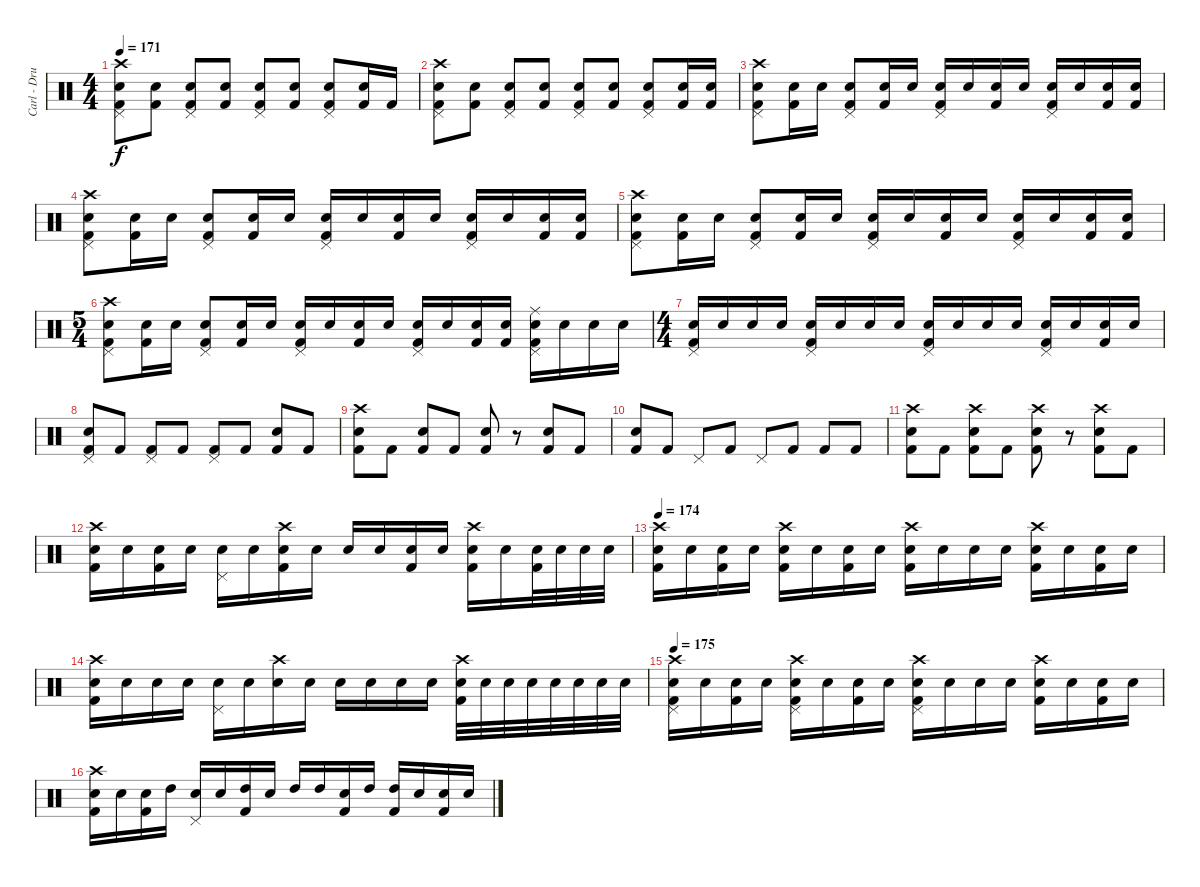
\track ("Carl - Drums" "Carl - Dru") {instrument percussion}
\staff {score}
\articulation defaults
\ts (4 4)
\tempo 171
\clef neutral
\ks c
("Electric Snare (hit)" "Pedal Hi-Hat (hit)" "Kick (hit) 2" "Crash high (hit)").8{dy f} ("Electric Snare (hit)" "Kick (hit) 2").8 ("Electric Snare (hit)" "Pedal Hi-Hat (hit)" "Kick (hit) 2").8 ("Electric Snare (hit)" "Kick (hit) 2").8 ("Electric Snare (hit)" "Pedal Hi-Hat (hit)" "Kick (hit) 2").8 ("Electric Snare (hit)" "Kick (hit) 2").8 ("Electric Snare (hit)" "Pedal Hi-Hat (hit)" "Kick (hit) 2").8 ("Electric Snare (hit)" "Kick (hit) 2").16 "Kick (hit) 2".16 |
("Electric Snare (hit)" "Pedal Hi-Hat (hit)" "Kick (hit) 2" "Crash high (hit)").8 ("Electric Snare (hit)" "Kick (hit) 2").8 ("Electric Snare (hit)" "Pedal Hi-Hat (hit)" "Kick (hit) 2").8 ("Electric Snare (hit)" "Kick (hit) 2").8 ("Electric Snare (hit)" "Pedal Hi-Hat (hit)" "Kick (hit) 2").8 ("Electric Snare (hit)" "Kick (hit) 2").8 ("Electric Snare (hit)" "Pedal Hi-Hat (hit)" "Kick (hit) 2").8 ("Electric Snare (hit)" "Kick (hit) 2").16 ("Electric Snare (hit)" "Kick (hit) 2").16 |
("Electric Snare (hit)" "Pedal Hi-Hat (hit)" "Kick (hit) 2" "Crash high (hit)").8 ("Electric Snare (hit)" "Kick (hit) 2").16 "Electric Snare (hit)".16 ("Electric Snare (hit)" "Pedal Hi-Hat (hit)" "Kick (hit) 2").8 ("Electric Snare (hit)" "Kick (hit) 2").16 "Electric Snare (hit)".16 ("Electric Snare (hit)" "Pedal Hi-Hat (hit)" "Kick (hit) 2").16 "Electric Snare (hit)".16 ("Electric Snare (hit)" "Kick (hit) 2").16 "Electric Snare (hit)".16 ("Electric Snare (hit)" "Pedal Hi-Hat (hit)" "Kick (hit) 2").16 "Electric Snare (hit)".16 ("Electric Snare (hit)" "Kick (hit) 2").16 ("Electric Snare (hit)" "Kick (hit) 2").16 |
("Electric Snare (hit)" "Pedal Hi-Hat (hit)" "Kick (hit) 2" "Crash high (hit)").8 ("Electric Snare (hit)" "Kick (hit) 2").16 "Electric Snare (hit)".16 ("Electric Snare (hit)" "Pedal Hi-Hat (hit)" "Kick (hit) 2").8 ("Electric Snare (hit)" "Kick (hit) 2").16 "Electric Snare (hit)".16 ("Electric Snare (hit)" "Pedal Hi-Hat (hit)" "Kick (hit) 2").16 "Electric Snare (hit)".16 ("Electric Snare (hit)" "Kick (hit) 2").16 "Electric Snare (hit)".16 ("Electric Snare (hit)" "Pedal Hi-Hat (hit)" "Kick (hit) 2").16 "Electric Snare (hit)".16 ("Electric Snare (hit)" "Kick (hit) 2").16 ("Electric Snare (hit)" "Kick (hit) 2").16 |
("Electric Snare (hit)" "Pedal Hi-Hat (hit)" "Kick (hit) 2" "Crash high (hit)").8 ("Electric Snare (hit)" "Kick (hit) 2").16 "Electric Snare (hit)".16 ("Electric Snare (hit)" "Pedal Hi-Hat (hit)" "Kick (hit) 2").8 ("Electric Snare (hit)" "Kick (hit) 2").16 "Electric Snare (hit)".16 ("Electric Snare (hit)" "Pedal Hi-Hat (hit)" "Kick (hit) 2").16 "Electric Snare (hit)".16 ("Electric Snare (hit)" "Kick (hit) 2").16 "Electric Snare (hit)".16 ("Electric Snare (hit)" "Pedal Hi-Hat (hit)" "Kick (hit) 2").16 "Electric Snare (hit)".16 ("Electric Snare (hit)" "Kick (hit) 2").16 ("Electric Snare (hit)" "Kick (hit) 2").16 |
\ts (5 4)
("Electric Snare (hit)" "Pedal Hi-Hat (hit)" "Kick (hit) 2" "Crash high (hit)").8 ("Electric Snare (hit)" "Kick (hit) 2").16 "Electric Snare (hit)".16 ("Electric Snare (hit)" "Pedal Hi-Hat (hit)" "Kick (hit) 2").8 ("Electric Snare (hit)" "Kick (hit) 2").16 "Electric Snare (hit)".16 ("Electric Snare (hit)" "Pedal Hi-Hat (hit)" "Kick (hit) 2").16 "Electric Snare (hit)".16 ("Electric Snare (hit)" "Kick (hit) 2").16 "Electric Snare (hit)".16 ("Electric Snare (hit)" "Pedal Hi-Hat (hit)" "Kick (hit) 2").16 "Electric Snare (hit)".16 ("Electric Snare (hit)" "Kick (hit) 2").16 ("Electric Snare (hit)" "Kick (hit) 2").16 ("Electric Snare (hit)" "Pedal Hi-Hat (hit)" "Kick (hit) 2" "Ride (middle)").16 "Electric Snare (hit)".16 "Electric Snare (hit)".16 "Electric Snare (hit)".16 |
\ts (4 4)
("Electric Snare (hit)" "Pedal Hi-Hat (hit)" "Kick (hit) 2").16 "Electric Snare (hit)".16 "Electric Snare (hit)".16 "Electric Snare (hit)".16 ("Electric Snare (hit)" "Pedal Hi-Hat (hit)" "Kick (hit) 2").16 "Electric Snare (hit)".16 "Electric Snare (hit)".16 "Electric Snare (hit)".16 ("Electric Snare (hit)" "Pedal Hi-Hat (hit)" "Kick (hit) 2").16 "Electric Snare (hit)".16 "Electric Snare (hit)".16 "Electric Snare (hit)".16 ("Electric Snare (hit)" "Pedal Hi-Hat (hit)" "Kick (hit) 2").16 "Electric Snare (hit)".16 ("Electric Snare (hit)" "Kick (hit) 2").16 "Electric Snare (hit)".16 |
("Electric Snare (hit)" "Pedal Hi-Hat (hit)" "Kick (hit) 2").8 "Kick (hit) 2".8 ("Pedal Hi-Hat (hit)" "Kick (hit) 2").8 "Kick (hit) 2".8 ("Pedal Hi-Hat (hit)" "Kick (hit) 2").8 "Kick (hit) 2".8 ("Electric Snare (hit)" "Kick (hit) 2").8 "Kick (hit) 2".8 |
("Electric Snare (hit)" "Kick (hit) 2" "Crash high (hit)").8 "Kick (hit) 2".8 ("Electric Snare (hit)" "Kick (hit) 2").8 "Kick (hit) 2".8 ("Electric Snare (hit)" "Kick (hit) 2").8 r.8 ("Electric Snare (hit)" "Kick (hit) 2").8 "Kick (hit) 2".8 |
("Electric Snare (hit)" "Kick (hit) 2").8 "Kick (hit) 2".8 "Pedal Hi-Hat (hit)".8 "Kick (hit) 2".8 "Pedal Hi-Hat (hit)".8 "Kick (hit) 2".8 "Kick (hit) 2".8 "Kick (hit) 2".8 |
("Electric Snare (hit)" "Kick (hit) 2" "Crash high (hit)").8 "Kick (hit) 2".8 ("Electric Snare (hit)" "Kick (hit) 2" "Crash high (hit)").8 "Kick (hit) 2".8 ("Electric Snare (hit)" "Kick (hit) 2" "Crash high (hit)").8 r.8 ("Electric Snare (hit)" "Kick (hit) 2" "Crash high (hit)").8 "Kick (hit) 2".8 |
("Electric Snare (hit)" "Kick (hit) 2" "Crash high (hit)").16 "Electric Snare (hit)".16 ("Electric Snare (hit)" "Kick (hit) 2").16 "Electric Snare (hit)".16 ("Electric Snare (hit)" "Pedal Hi-Hat (hit)").16 "Electric Snare (hit)".16 ("Electric Snare (hit)" "Kick (hit) 2" "Crash high (hit)").16 "Electric Snare (hit)".16 "Electric Snare (hit)".16 "Electric Snare (hit)".16 ("Electric Snare (hit)" "Kick (hit) 2").16 "Electric Snare (hit)".16 ("Electric Snare (hit)" "Kick (hit) 2" "Crash high (hit)").16 "Electric Snare (hit)".16 ("Electric Snare (hit)" "Kick (hit) 2").32 "Electric Snare (hit)".32 "Electric Snare (hit)".32 "Electric Snare (hit)".32 |
\tempo 174
("Electric Snare (hit)" "Kick (hit) 2" "Crash high (hit)").16 "Electric Snare (hit)".16 ("Electric Snare (hit)" "Kick (hit) 2").16 "Electric Snare (hit)".16 ("Electric Snare (hit)" "Kick (hit) 2" "Crash high (hit)").16 "Electric Snare (hit)".16 ("Electric Snare (hit)" "Kick (hit) 2").16 "Electric Snare (hit)".16 ("Electric Snare (hit)" "Kick (hit) 2" "Crash high (hit)").16 "Electric Snare (hit)".16 "Electric Snare (hit)".16 "Electric Snare (hit)".16 ("Electric Snare (hit)" "Kick (hit) 2" "Crash high (hit)").16 "Electric Snare (hit)".16 ("Electric Snare (hit)" "Kick (hit) 2").16 "Electric Snare (hit)".16 |
("Electric Snare (hit)" "Kick (hit) 2" "Crash high (hit)").16 "Electric Snare (hit)".16 "Electric Snare (hit)".16 "Electric Snare (hit)".16 ("Electric Snare (hit)" "Pedal Hi-Hat (hit)").16 "Electric Snare (hit)".16 ("Electric Snare (hit)" "Crash high (hit)").16 "Electric Snare (hit)".16 "Electric Snare (hit)".16 "Electric Snare (hit)".16 "Electric Snare (hit)".16 "Electric Snare (hit)".16 ("Electric Snare (hit)" "Kick (hit) 2" "Crash high (hit)").32 "Electric Snare (hit)".32 "Electric Snare (hit)".32 "Electric Snare (hit)".32 "Electric Snare (hit)".32 "Electric Snare (hit)".32 "Electric Snare (hit)".32 "Electric Snare (hit)".32 |
\tempo 175
("Electric Snare (hit)" "Pedal Hi-Hat (hit)" "Kick (hit) 2" "Crash high (hit)").16 "Electric Snare (hit)".16 ("Electric Snare (hit)" "Kick (hit) 2").16 "Electric Snare (hit)".16 ("Electric Snare (hit)" "Pedal Hi-Hat (hit)" "Kick (hit) 2" "Crash high (hit)").16 "Electric Snare (hit)".16 ("Electric Snare (hit)" "Kick (hit) 2").16 "Electric Snare (hit)".16 ("Electric Snare (hit)" "Pedal Hi-Hat (hit)" "Kick (hit) 2" "Crash high (hit)").16 "Electric Snare (hit)".16 "Electric Snare (hit)".16 "Electric Snare (hit)".16 ("Electric Snare (hit)" "Kick (hit) 2" "Crash high (hit)").16 "Electric Snare (hit)".16 ("Electric Snare (hit)" "Kick (hit) 2").16 "Electric Snare (hit)".16 |
("Electric Snare (hit)" "Kick (hit) 2" "Crash high (hit)").16 "Electric Snare (hit)".16 ("Electric Snare (hit)" "Kick (hit) 2").16 "High Tom (hit)".16 ("Electric Snare (hit)" "Pedal Hi-Hat (hit)").16 "Electric Snare (hit)".16 ("High Tom (hit)" "Kick (hit) 2").16 "Electric Snare (hit)".16 "High Tom (hit)".16 "High Tom (hit)".16 ("Electric Snare (hit)" "Kick (hit) 2").16 "High Tom (hit)".16 ("High Tom (hit)" "Kick (hit) 2").16 "Electric Snare (hit)".16 ("Electric Snare (hit)" "Kick (hit) 2").16 "Electric Snare (hit)".16
